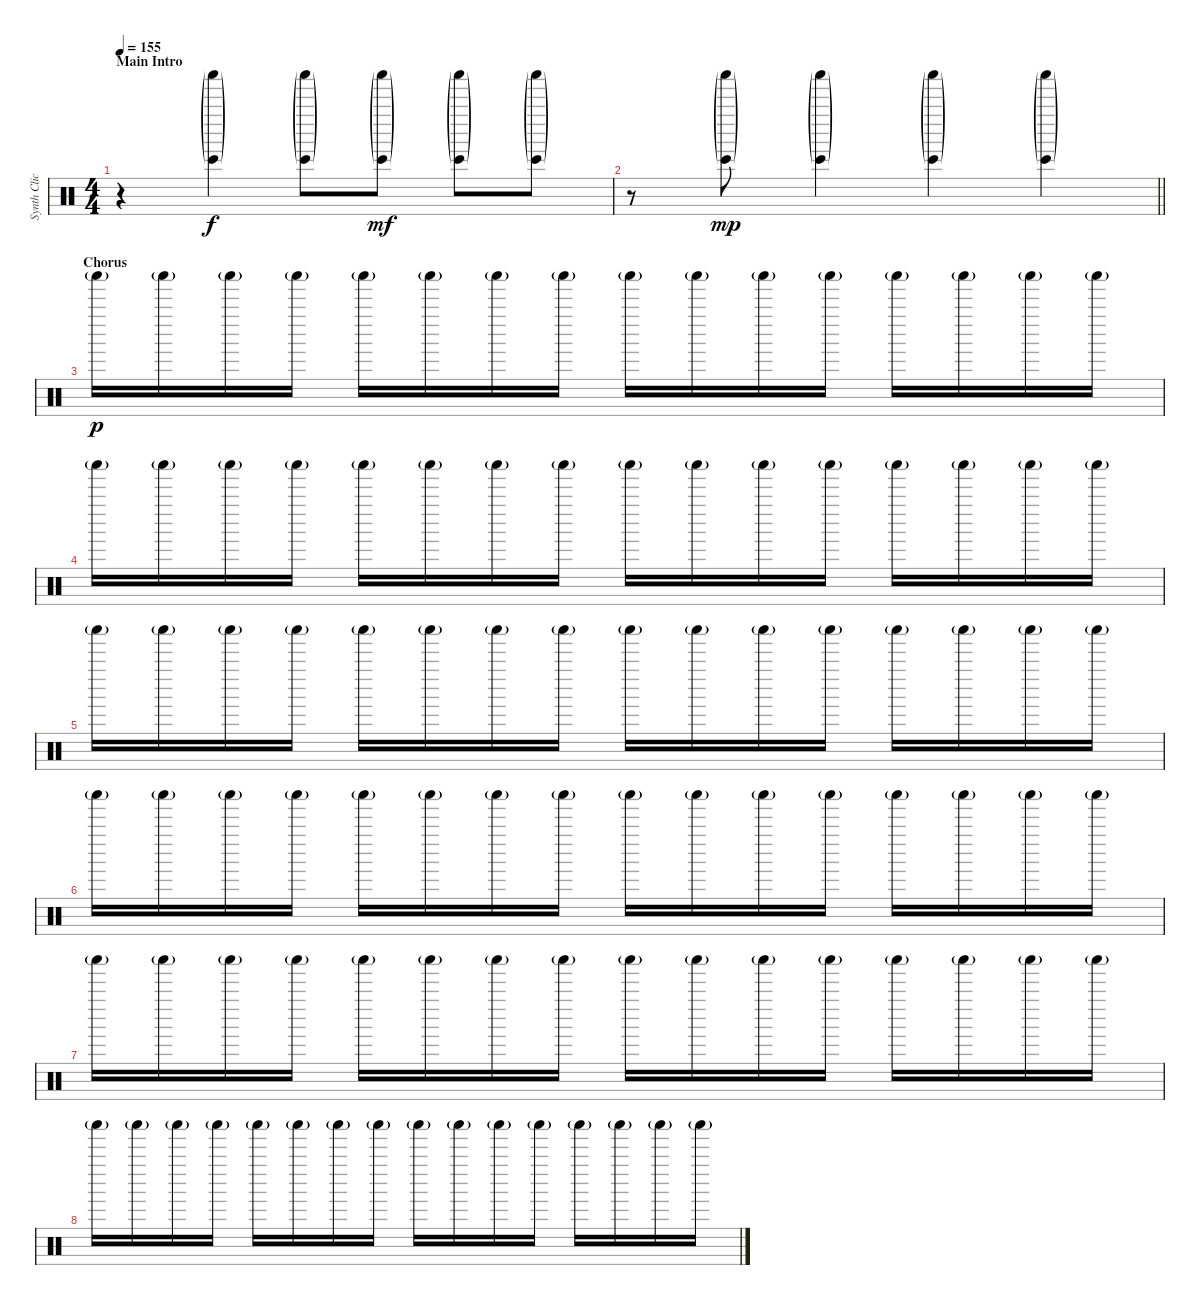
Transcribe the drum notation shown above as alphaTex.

\track ("Synth Click" "Synth Clic") {instrument percussion}
\staff {score}
\articulation defaults
\ts (4 4)
\section ("" "Main Intro")
\tempo 155
\clef neutral
\ks c
r.4{dy f} ("Bongo High (hit)"{g} "Shaker (hit)"{g}).4 ("Bongo High (hit)"{g} "Shaker (hit)"{g}).8 ("Bongo High (hit)"{g} "Shaker (hit)"{g}).8{dy mf} ("Bongo High (hit)"{g} "Shaker (hit)"{g}).8 ("Bongo High (hit)"{g} "Shaker (hit)"{g}).8 |
\barLineRight lightlight
r.8 ("Bongo High (hit)"{g} "Shaker (hit)"{g}).8{dy mp} ("Bongo High (hit)"{g} "Shaker (hit)"{g}).4 ("Bongo High (hit)"{g} "Shaker (hit)"{g}).4 ("Bongo High (hit)"{g} "Shaker (hit)"{g}).4 |
\section ("" "Chorus")
"Shaker (hit)"{g}.16{dy p} "Shaker (hit)"{g}.16 "Shaker (hit)"{g}.16 "Shaker (hit)"{g}.16 "Shaker (hit)"{g}.16 "Shaker (hit)"{g}.16 "Shaker (hit)"{g}.16 "Shaker (hit)"{g}.16 "Shaker (hit)"{g}.16 "Shaker (hit)"{g}.16 "Shaker (hit)"{g}.16 "Shaker (hit)"{g}.16 "Shaker (hit)"{g}.16 "Shaker (hit)"{g}.16 "Shaker (hit)"{g}.16 "Shaker (hit)"{g}.16 |
"Shaker (hit)"{g}.16 "Shaker (hit)"{g}.16 "Shaker (hit)"{g}.16 "Shaker (hit)"{g}.16 "Shaker (hit)"{g}.16 "Shaker (hit)"{g}.16 "Shaker (hit)"{g}.16 "Shaker (hit)"{g}.16 "Shaker (hit)"{g}.16 "Shaker (hit)"{g}.16 "Shaker (hit)"{g}.16 "Shaker (hit)"{g}.16 "Shaker (hit)"{g}.16 "Shaker (hit)"{g}.16 "Shaker (hit)"{g}.16 "Shaker (hit)"{g}.16 |
"Shaker (hit)"{g}.16 "Shaker (hit)"{g}.16 "Shaker (hit)"{g}.16 "Shaker (hit)"{g}.16 "Shaker (hit)"{g}.16 "Shaker (hit)"{g}.16 "Shaker (hit)"{g}.16 "Shaker (hit)"{g}.16 "Shaker (hit)"{g}.16 "Shaker (hit)"{g}.16 "Shaker (hit)"{g}.16 "Shaker (hit)"{g}.16 "Shaker (hit)"{g}.16 "Shaker (hit)"{g}.16 "Shaker (hit)"{g}.16 "Shaker (hit)"{g}.16 |
"Shaker (hit)"{g}.16 "Shaker (hit)"{g}.16 "Shaker (hit)"{g}.16 "Shaker (hit)"{g}.16 "Shaker (hit)"{g}.16 "Shaker (hit)"{g}.16 "Shaker (hit)"{g}.16 "Shaker (hit)"{g}.16 "Shaker (hit)"{g}.16 "Shaker (hit)"{g}.16 "Shaker (hit)"{g}.16 "Shaker (hit)"{g}.16 "Shaker (hit)"{g}.16 "Shaker (hit)"{g}.16 "Shaker (hit)"{g}.16 "Shaker (hit)"{g}.16 |
"Shaker (hit)"{g}.16 "Shaker (hit)"{g}.16 "Shaker (hit)"{g}.16 "Shaker (hit)"{g}.16 "Shaker (hit)"{g}.16 "Shaker (hit)"{g}.16 "Shaker (hit)"{g}.16 "Shaker (hit)"{g}.16 "Shaker (hit)"{g}.16 "Shaker (hit)"{g}.16 "Shaker (hit)"{g}.16 "Shaker (hit)"{g}.16 "Shaker (hit)"{g}.16 "Shaker (hit)"{g}.16 "Shaker (hit)"{g}.16 "Shaker (hit)"{g}.16 |
"Shaker (hit)"{g}.16 "Shaker (hit)"{g}.16 "Shaker (hit)"{g}.16 "Shaker (hit)"{g}.16 "Shaker (hit)"{g}.16 "Shaker (hit)"{g}.16 "Shaker (hit)"{g}.16 "Shaker (hit)"{g}.16 "Shaker (hit)"{g}.16 "Shaker (hit)"{g}.16 "Shaker (hit)"{g}.16 "Shaker (hit)"{g}.16 "Shaker (hit)"{g}.16 "Shaker (hit)"{g}.16 "Shaker (hit)"{g}.16 "Shaker (hit)"{g}.16
